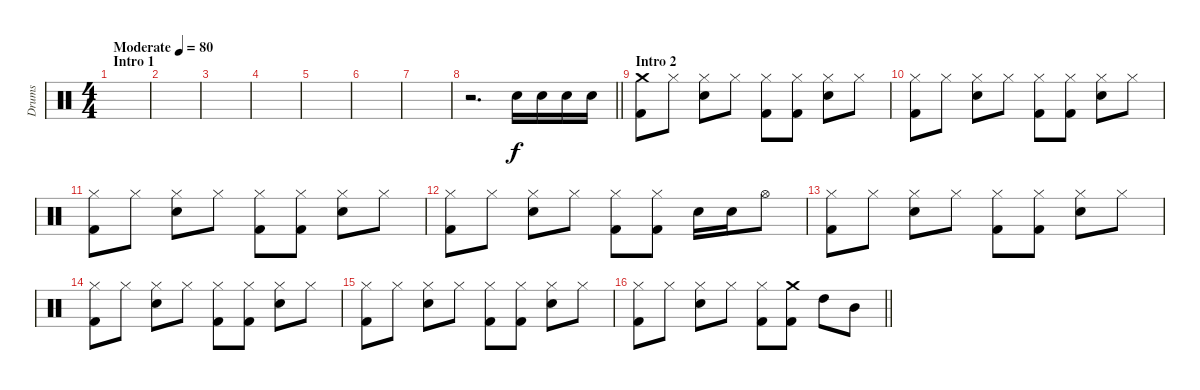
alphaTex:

\track ("Drums" "Drums") {instrument percussion}
\staff {score}
\articulation defaults
\ts (4 4)
\section ("" "Intro 1")
\tempo (80 "Moderate")
\clef neutral
\ks c
|
|
|
|
|
|
|
\barLineRight lightlight
r.2{d} "Electric Snare (hit)".16 "Electric Snare (hit)".16 "Electric Snare (hit)".16 "Electric Snare (hit)".16 |
\section ("" "Intro 2")
("Crash medium (hit)" "Kick (hit) 2").8 "Hi-Hat (closed)".8 ("Hi-Hat (closed)" "Electric Snare (hit)").8 "Hi-Hat (closed)".8 ("Hi-Hat (closed)" "Kick (hit) 2").8 ("Hi-Hat (closed)" "Kick (hit) 2").8 ("Hi-Hat (closed)" "Electric Snare (hit)").8 "Hi-Hat (closed)".8 |
("Hi-Hat (closed)" "Kick (hit) 2").8 "Hi-Hat (closed)".8 ("Hi-Hat (closed)" "Electric Snare (hit)").8 "Hi-Hat (closed)".8 ("Hi-Hat (closed)" "Kick (hit) 2").8 ("Hi-Hat (closed)" "Kick (hit) 2").8 ("Hi-Hat (closed)" "Electric Snare (hit)").8 "Hi-Hat (closed)".8 |
("Hi-Hat (closed)" "Kick (hit) 2").8 "Hi-Hat (closed)".8 ("Hi-Hat (closed)" "Electric Snare (hit)").8 "Hi-Hat (closed)".8 ("Hi-Hat (closed)" "Kick (hit) 2").8 ("Hi-Hat (closed)" "Kick (hit) 2").8 ("Hi-Hat (closed)" "Electric Snare (hit)").8 "Hi-Hat (closed)".8 |
("Hi-Hat (closed)" "Kick (hit) 2").8 "Hi-Hat (closed)".8 ("Hi-Hat (closed)" "Electric Snare (hit)").8 "Hi-Hat (closed)".8 ("Hi-Hat (closed)" "Kick (hit) 2").8 ("Hi-Hat (closed)" "Kick (hit) 2").8 "Electric Snare (hit)".16 "Electric Snare (hit)".16 "Hi-Hat (open)".8 |
("Hi-Hat (closed)" "Kick (hit) 2").8 "Hi-Hat (closed)".8 ("Hi-Hat (closed)" "Electric Snare (hit)").8 "Hi-Hat (closed)".8 ("Hi-Hat (closed)" "Kick (hit) 2").8 ("Hi-Hat (closed)" "Kick (hit) 2").8 ("Hi-Hat (closed)" "Electric Snare (hit)").8 "Hi-Hat (closed)".8 |
("Hi-Hat (closed)" "Kick (hit) 2").8 "Hi-Hat (closed)".8 ("Hi-Hat (closed)" "Electric Snare (hit)").8 "Hi-Hat (closed)".8 ("Hi-Hat (closed)" "Kick (hit) 2").8 ("Hi-Hat (closed)" "Kick (hit) 2").8 ("Hi-Hat (closed)" "Electric Snare (hit)").8 "Hi-Hat (closed)".8 |
("Hi-Hat (closed)" "Kick (hit) 2").8 "Hi-Hat (closed)".8 ("Hi-Hat (closed)" "Electric Snare (hit)").8 "Hi-Hat (closed)".8 ("Hi-Hat (closed)" "Kick (hit) 2").8 ("Hi-Hat (closed)" "Kick (hit) 2").8 ("Hi-Hat (closed)" "Electric Snare (hit)").8 "Hi-Hat (closed)".8 |
\barLineRight lightlight
("Hi-Hat (closed)" "Kick (hit) 2").8 "Hi-Hat (closed)".8 ("Hi-Hat (closed)" "Electric Snare (hit)").8 "Hi-Hat (closed)".8 ("Hi-Hat (closed)" "Kick (hit) 2").8 ("Crash medium (hit)" "Kick (hit) 2").8 "High Tom (hit)".8 "Mid Tom (hit)".8
